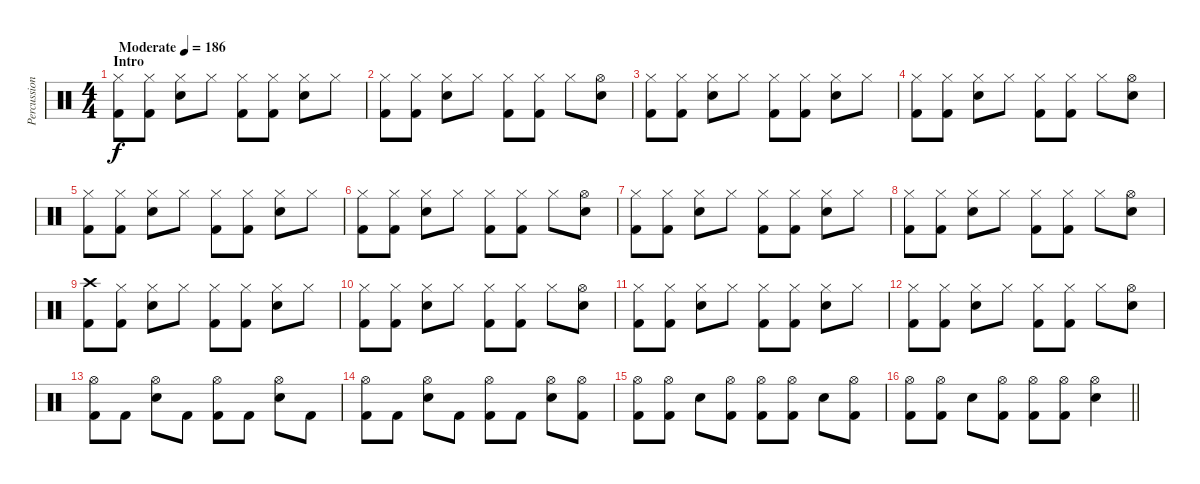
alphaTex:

\track ("Percussion" "Percussion") {instrument percussion}
\staff {score}
\articulation defaults
\ts (4 4)
\section ("" "Intro")
\tempo (186 "Moderate")
\clef neutral
\ks c
("Hi-Hat (closed)" "Kick (hit) 2").8{dy f} ("Hi-Hat (closed)" "Kick (hit) 2").8 ("Hi-Hat (closed)" "Electric Snare (hit)").8 "Hi-Hat (closed)".8 ("Hi-Hat (closed)" "Kick (hit) 2").8 ("Hi-Hat (closed)" "Kick (hit) 2").8 ("Hi-Hat (closed)" "Electric Snare (hit)").8 "Hi-Hat (closed)".8 |
("Hi-Hat (closed)" "Kick (hit) 2").8 ("Hi-Hat (closed)" "Kick (hit) 2").8 ("Hi-Hat (closed)" "Electric Snare (hit)").8 "Hi-Hat (closed)".8 ("Hi-Hat (closed)" "Kick (hit) 2").8 ("Hi-Hat (closed)" "Kick (hit) 2").8 "Hi-Hat (closed)".8 ("Hi-Hat (open)" "Electric Snare (hit)").8 |
("Hi-Hat (closed)" "Kick (hit) 2").8 ("Hi-Hat (closed)" "Kick (hit) 2").8 ("Hi-Hat (closed)" "Electric Snare (hit)").8 "Hi-Hat (closed)".8 ("Hi-Hat (closed)" "Kick (hit) 2").8 ("Hi-Hat (closed)" "Kick (hit) 2").8 ("Hi-Hat (closed)" "Electric Snare (hit)").8 "Hi-Hat (closed)".8 |
("Hi-Hat (closed)" "Kick (hit) 2").8 ("Hi-Hat (closed)" "Kick (hit) 2").8 ("Hi-Hat (closed)" "Electric Snare (hit)").8 "Hi-Hat (closed)".8 ("Hi-Hat (closed)" "Kick (hit) 2").8 ("Hi-Hat (closed)" "Kick (hit) 2").8 "Hi-Hat (closed)".8 ("Hi-Hat (open)" "Electric Snare (hit)").8 |
("Hi-Hat (closed)" "Kick (hit) 2").8 ("Hi-Hat (closed)" "Kick (hit) 2").8 ("Hi-Hat (closed)" "Electric Snare (hit)").8 "Hi-Hat (closed)".8 ("Hi-Hat (closed)" "Kick (hit) 2").8 ("Hi-Hat (closed)" "Kick (hit) 2").8 ("Hi-Hat (closed)" "Electric Snare (hit)").8 "Hi-Hat (closed)".8 |
("Hi-Hat (closed)" "Kick (hit) 2").8 ("Hi-Hat (closed)" "Kick (hit) 2").8 ("Hi-Hat (closed)" "Electric Snare (hit)").8 "Hi-Hat (closed)".8 ("Hi-Hat (closed)" "Kick (hit) 2").8 ("Hi-Hat (closed)" "Kick (hit) 2").8 "Hi-Hat (closed)".8 ("Hi-Hat (open)" "Electric Snare (hit)").8 |
("Hi-Hat (closed)" "Kick (hit) 2").8 ("Hi-Hat (closed)" "Kick (hit) 2").8 ("Hi-Hat (closed)" "Electric Snare (hit)").8 "Hi-Hat (closed)".8 ("Hi-Hat (closed)" "Kick (hit) 2").8 ("Hi-Hat (closed)" "Kick (hit) 2").8 ("Hi-Hat (closed)" "Electric Snare (hit)").8 "Hi-Hat (closed)".8 |
("Hi-Hat (closed)" "Kick (hit) 2").8 ("Hi-Hat (closed)" "Kick (hit) 2").8 ("Hi-Hat (closed)" "Electric Snare (hit)").8 "Hi-Hat (closed)".8 ("Hi-Hat (closed)" "Kick (hit) 2").8 ("Hi-Hat (closed)" "Kick (hit) 2").8 "Hi-Hat (closed)".8 ("Hi-Hat (open)" "Electric Snare (hit)").8 |
("Crash high (hit)" "Kick (hit) 2").8 ("Hi-Hat (closed)" "Kick (hit) 2").8 ("Hi-Hat (closed)" "Electric Snare (hit)").8 "Hi-Hat (closed)".8 ("Hi-Hat (closed)" "Kick (hit) 2").8 ("Hi-Hat (closed)" "Kick (hit) 2").8 ("Hi-Hat (closed)" "Electric Snare (hit)").8 "Hi-Hat (closed)".8 |
("Hi-Hat (closed)" "Kick (hit) 2").8 ("Hi-Hat (closed)" "Kick (hit) 2").8 ("Hi-Hat (closed)" "Electric Snare (hit)").8 "Hi-Hat (closed)".8 ("Hi-Hat (closed)" "Kick (hit) 2").8 ("Hi-Hat (closed)" "Kick (hit) 2").8 "Hi-Hat (closed)".8 ("Hi-Hat (open)" "Electric Snare (hit)").8 |
("Hi-Hat (closed)" "Kick (hit) 2").8 ("Hi-Hat (closed)" "Kick (hit) 2").8 ("Hi-Hat (closed)" "Electric Snare (hit)").8 "Hi-Hat (closed)".8 ("Hi-Hat (closed)" "Kick (hit) 2").8 ("Hi-Hat (closed)" "Kick (hit) 2").8 ("Hi-Hat (closed)" "Electric Snare (hit)").8 "Hi-Hat (closed)".8 |
("Hi-Hat (closed)" "Kick (hit) 2").8 ("Hi-Hat (closed)" "Kick (hit) 2").8 ("Hi-Hat (closed)" "Electric Snare (hit)").8 "Hi-Hat (closed)".8 ("Hi-Hat (closed)" "Kick (hit) 2").8 ("Hi-Hat (closed)" "Kick (hit) 2").8 "Hi-Hat (closed)".8 ("Hi-Hat (open)" "Electric Snare (hit)").8 |
("Hi-Hat (open)" "Kick (hit) 2").8 "Kick (hit) 2".8 ("Hi-Hat (open)" "Electric Snare (hit)").8 "Kick (hit) 2".8 ("Hi-Hat (open)" "Kick (hit) 2").8 "Kick (hit) 2".8 ("Hi-Hat (open)" "Electric Snare (hit)").8 "Kick (hit) 2".8 |
("Hi-Hat (open)" "Kick (hit) 2").8 "Kick (hit) 2".8 ("Hi-Hat (open)" "Electric Snare (hit)").8 "Kick (hit) 2".8 ("Hi-Hat (open)" "Kick (hit) 2").8 "Kick (hit) 2".8 ("Hi-Hat (open)" "Electric Snare (hit)").8 ("Hi-Hat (open)" "Kick (hit) 2").8 |
("Hi-Hat (open)" "Kick (hit) 2").8 ("Hi-Hat (open)" "Kick (hit) 2").8 "Electric Snare (hit)".8 ("Hi-Hat (open)" "Kick (hit) 2").8 ("Hi-Hat (open)" "Kick (hit) 2").8 ("Hi-Hat (open)" "Kick (hit) 2").8 "Electric Snare (hit)".8 ("Hi-Hat (open)" "Kick (hit) 2").8 |
\barLineRight lightlight
("Hi-Hat (open)" "Kick (hit) 2").8 ("Hi-Hat (open)" "Kick (hit) 2").8 "Electric Snare (hit)".8 ("Hi-Hat (open)" "Kick (hit) 2").8 ("Hi-Hat (open)" "Kick (hit) 2").8 ("Hi-Hat (open)" "Kick (hit) 2").8 ("Hi-Hat (open)" "Electric Snare (hit)").4
